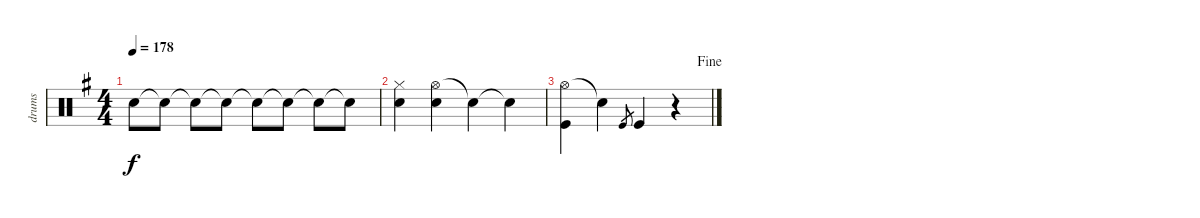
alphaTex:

\track ("drums" "drums") {instrument percussion}
\staff {score}
\articulation defaults
\ts (4 4)
\tempo 178
\clef neutral
\ks eminor "Snare (hit)"{t}.8{dy f} "Snare (hit)"{t}.8 "Snare (hit)"{t}.8 "Snare (hit)"{t}.8 "Snare (hit)"{t}.8 "Snare (hit)"{t}.8 "Snare (hit)"{t}.8 "Snare (hit)"{t}.8
|
("Hi-Hat (closed)" "Snare (hit) 2").4 ("Hi-Hat (open)" "Snare (hit) 2").4 "Snare (hit)"{t}.4 "Snare (hit)"{t}.4 |
\jump fine
("Hi-Hat (open)" "Kick (hit)").4 "Snare (hit)"{t}.4 "Kick (hit)".8{gr} "Kick (hit)".4 r.4
